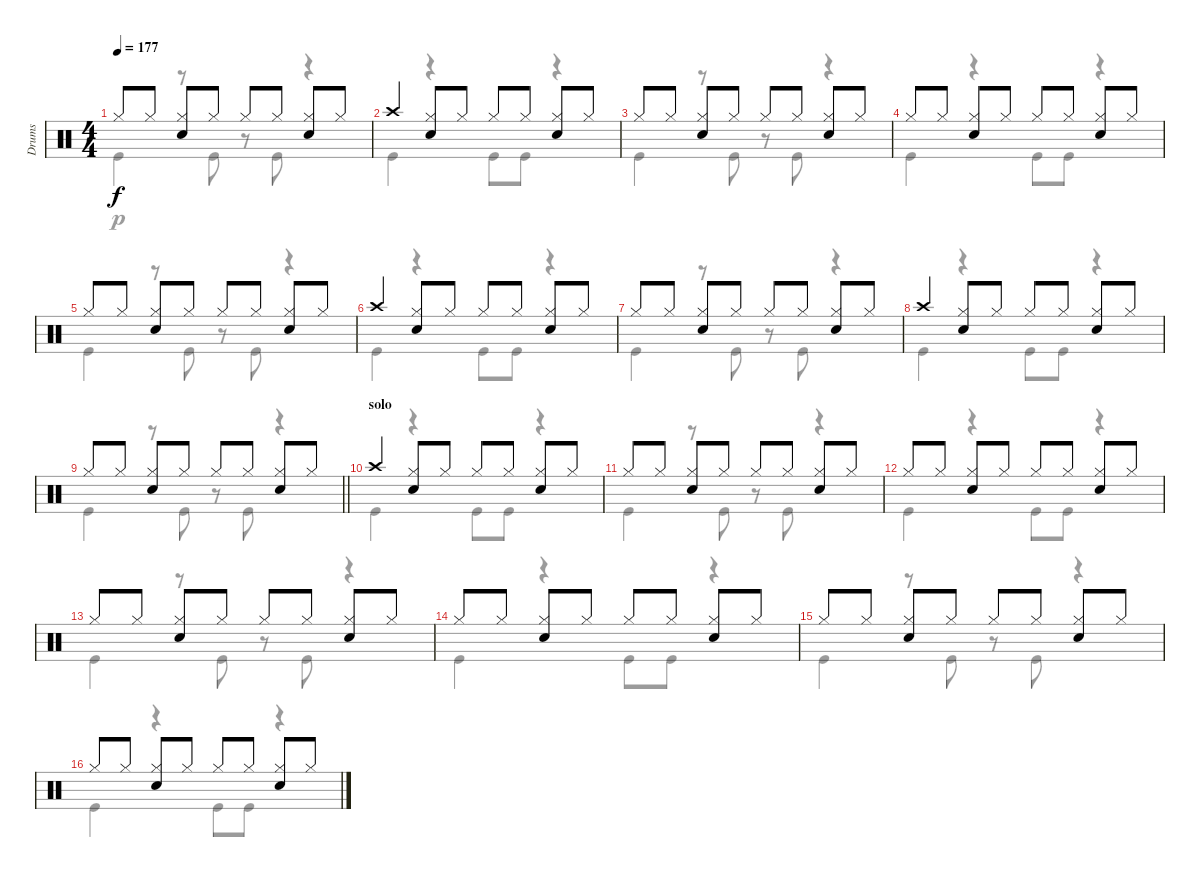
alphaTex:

\track ("Drums" "Drums") {instrument percussion}
\staff {score}
\articulation defaults
\voice
\ts (4 4)
\tempo 177
\clef neutral
\ks c "Hi-Hat (closed)".8{dy f} "Hi-Hat (closed)".8
("Hi-Hat (closed)" "Snare (hit) 2").8 "Hi-Hat (closed)".8 "Hi-Hat (closed)".8 "Hi-Hat (closed)".8 ("Hi-Hat (closed)" "Snare (hit) 2").8 "Hi-Hat (closed)".8 |
"Crash high (hit)".4 ("Hi-Hat (closed)" "Snare (hit) 2").8 "Hi-Hat (closed)".8 "Hi-Hat (closed)".8 "Hi-Hat (closed)".8 ("Hi-Hat (closed)" "Snare (hit) 2").8 "Hi-Hat (closed)".8 |
"Hi-Hat (closed)".8 "Hi-Hat (closed)".8 ("Hi-Hat (closed)" "Snare (hit) 2").8 "Hi-Hat (closed)".8 "Hi-Hat (closed)".8 "Hi-Hat (closed)".8 ("Hi-Hat (closed)" "Snare (hit) 2").8 "Hi-Hat (closed)".8 |
"Hi-Hat (closed)".8 "Hi-Hat (closed)".8 ("Hi-Hat (closed)" "Snare (hit) 2").8 "Hi-Hat (closed)".8 "Hi-Hat (closed)".8 "Hi-Hat (closed)".8 ("Hi-Hat (closed)" "Snare (hit) 2").8 "Hi-Hat (closed)".8 |
"Hi-Hat (closed)".8 "Hi-Hat (closed)".8 ("Hi-Hat (closed)" "Snare (hit) 2").8 "Hi-Hat (closed)".8 "Hi-Hat (closed)".8 "Hi-Hat (closed)".8 ("Hi-Hat (closed)" "Snare (hit) 2").8 "Hi-Hat (closed)".8 |
"Crash high (hit)".4 ("Hi-Hat (closed)" "Snare (hit) 2").8 "Hi-Hat (closed)".8 "Hi-Hat (closed)".8 "Hi-Hat (closed)".8 ("Hi-Hat (closed)" "Snare (hit) 2").8 "Hi-Hat (closed)".8 |
"Hi-Hat (closed)".8 "Hi-Hat (closed)".8 ("Hi-Hat (closed)" "Snare (hit) 2").8 "Hi-Hat (closed)".8 "Hi-Hat (closed)".8 "Hi-Hat (closed)".8 ("Hi-Hat (closed)" "Snare (hit) 2").8 "Hi-Hat (closed)".8 |
"Crash high (hit)".4 ("Hi-Hat (closed)" "Snare (hit) 2").8 "Hi-Hat (closed)".8 "Hi-Hat (closed)".8 "Hi-Hat (closed)".8 ("Hi-Hat (closed)" "Snare (hit) 2").8 "Hi-Hat (closed)".8 |
\barLineRight lightlight "Hi-Hat (closed)".8 "Hi-Hat (closed)".8
("Hi-Hat (closed)" "Snare (hit) 2").8 "Hi-Hat (closed)".8 "Hi-Hat (closed)".8 "Hi-Hat (closed)".8 ("Hi-Hat (closed)" "Snare (hit) 2").8 "Hi-Hat (closed)".8 |
\section ("" "solo")
"Crash high (hit)".4 ("Hi-Hat (closed)" "Snare (hit) 2").8 "Hi-Hat (closed)".8 "Hi-Hat (closed)".8 "Hi-Hat (closed)".8 ("Hi-Hat (closed)" "Snare (hit) 2").8 "Hi-Hat (closed)".8 |
"Hi-Hat (closed)".8 "Hi-Hat (closed)".8 ("Hi-Hat (closed)" "Snare (hit) 2").8 "Hi-Hat (closed)".8 "Hi-Hat (closed)".8 "Hi-Hat (closed)".8 ("Hi-Hat (closed)" "Snare (hit) 2").8 "Hi-Hat (closed)".8 |
"Hi-Hat (closed)".8 "Hi-Hat (closed)".8 ("Hi-Hat (closed)" "Snare (hit) 2").8 "Hi-Hat (closed)".8 "Hi-Hat (closed)".8 "Hi-Hat (closed)".8 ("Hi-Hat (closed)" "Snare (hit) 2").8 "Hi-Hat (closed)".8 |
"Hi-Hat (closed)".8 "Hi-Hat (closed)".8 ("Hi-Hat (closed)" "Snare (hit) 2").8 "Hi-Hat (closed)".8 "Hi-Hat (closed)".8 "Hi-Hat (closed)".8 ("Hi-Hat (closed)" "Snare (hit) 2").8 "Hi-Hat (closed)".8 |
"Hi-Hat (closed)".8 "Hi-Hat (closed)".8 ("Hi-Hat (closed)" "Snare (hit) 2").8 "Hi-Hat (closed)".8 "Hi-Hat (closed)".8 "Hi-Hat (closed)".8 ("Hi-Hat (closed)" "Snare (hit) 2").8 "Hi-Hat (closed)".8 |
"Hi-Hat (closed)".8 "Hi-Hat (closed)".8 ("Hi-Hat (closed)" "Snare (hit) 2").8 "Hi-Hat (closed)".8 "Hi-Hat (closed)".8 "Hi-Hat (closed)".8 ("Hi-Hat (closed)" "Snare (hit) 2").8 "Hi-Hat (closed)".8 |
"Hi-Hat (closed)".8 "Hi-Hat (closed)".8 ("Hi-Hat (closed)" "Snare (hit) 2").8 "Hi-Hat (closed)".8 "Hi-Hat (closed)".8 "Hi-Hat (closed)".8 ("Hi-Hat (closed)" "Snare (hit) 2").8 "Hi-Hat (closed)".8
\voice
\clef neutral
\ottava regular
\simile none
\ks c "Kick (hit)".4{dy p}
r.8 "Kick (hit)".8 r.8 "Kick (hit)".8 r.4 |
"Kick (hit)".4 r.4 "Kick (hit)".8 "Kick (hit)".8 r.4 |
"Kick (hit)".4 r.8 "Kick (hit)".8 r.8 "Kick (hit)".8 r.4 |
"Kick (hit)".4 r.4 "Kick (hit)".8 "Kick (hit)".8 r.4 |
"Kick (hit)".4 r.8 "Kick (hit)".8 r.8 "Kick (hit)".8 r.4 |
"Kick (hit)".4 r.4 "Kick (hit)".8 "Kick (hit)".8 r.4 |
"Kick (hit)".4 r.8 "Kick (hit)".8 r.8 "Kick (hit)".8 r.4 |
"Kick (hit)".4 r.4 "Kick (hit)".8 "Kick (hit)".8 r.4 |
\barLineRight lightlight "Kick (hit)".4
r.8 "Kick (hit)".8 r.8 "Kick (hit)".8 r.4 |
"Kick (hit)".4 r.4 "Kick (hit)".8 "Kick (hit)".8 r.4 |
"Kick (hit)".4 r.8 "Kick (hit)".8 r.8 "Kick (hit)".8 r.4 |
"Kick (hit)".4 r.4 "Kick (hit)".8 "Kick (hit)".8 r.4 |
"Kick (hit)".4 r.8 "Kick (hit)".8 r.8 "Kick (hit)".8 r.4 |
"Kick (hit)".4 r.4 "Kick (hit)".8 "Kick (hit)".8 r.4 |
"Kick (hit)".4 r.8 "Kick (hit)".8 r.8 "Kick (hit)".8 r.4 |
"Kick (hit)".4 r.4 "Kick (hit)".8 "Kick (hit)".8 r.4
